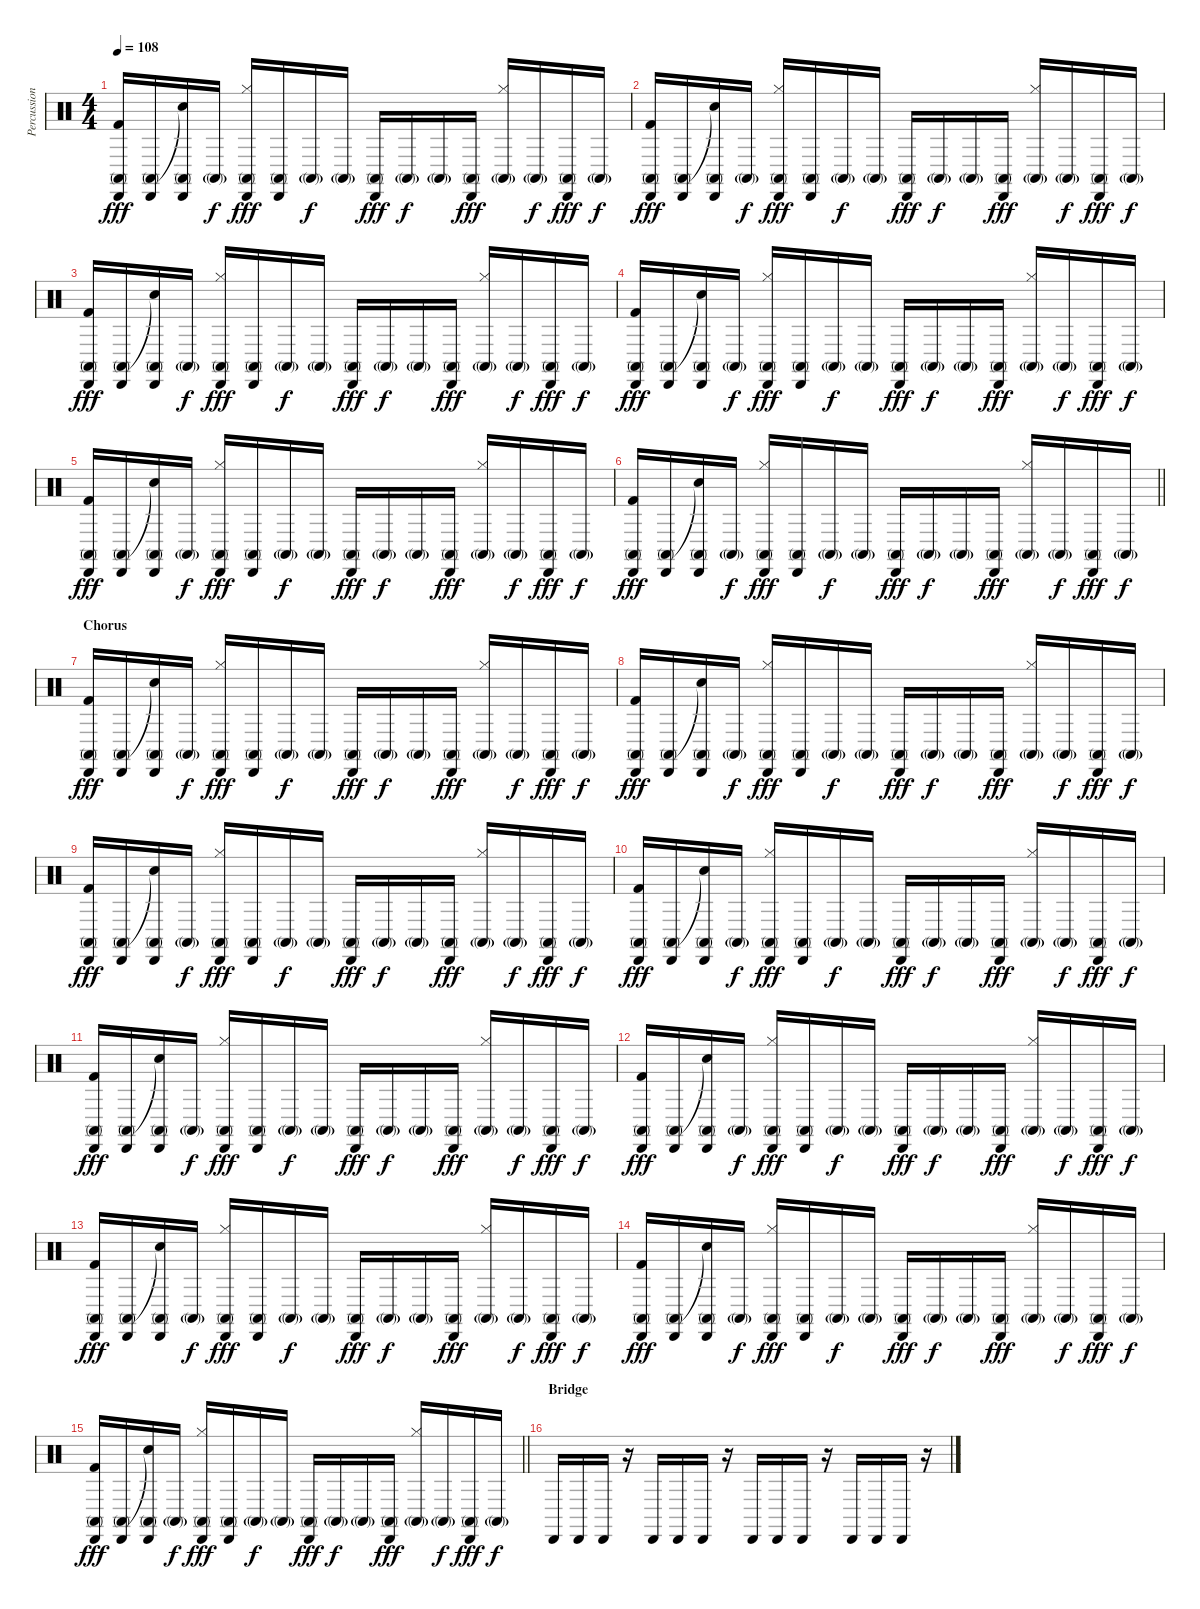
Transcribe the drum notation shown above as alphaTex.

\track ("Percussion" "Percussion") {instrument percussion}
\staff {score}
\articulation defaults
\ts (4 4)
\tempo 108
\clef neutral
\ks c
("Conga high (mute)" "Cabasa (hit)" "Kick (hit) 2").16{dy fff} ("Conga high (mute)" "Cabasa (hit)").16 ("Snare (hit)"{t} "Conga high (mute)" "Cabasa (hit)").16 "Conga high (mute)"{g}.16{dy f} ("Hi-Hat (closed)" "Conga high (mute)" "Cabasa (hit)").16{dy fff} ("Conga high (mute)" "Cabasa (hit)").16 "Conga high (mute)"{g}.16{dy f} "Conga high (mute)"{g}.16 ("Conga high (mute)" "Cabasa (hit)").16{dy fff} "Conga high (mute)"{g}.16{dy f} "Conga high (mute)"{g}.16 ("Conga high (mute)" "Cabasa (hit)").16{dy fff} ("Hi-Hat (closed)" "Conga high (mute)"{g}).16 "Conga high (mute)"{g}.16{dy f} ("Conga high (mute)" "Cabasa (hit)").16{dy fff} "Conga high (mute)"{g}.16{dy f} |
("Conga high (mute)" "Cabasa (hit)" "Kick (hit) 2").16{dy fff} ("Conga high (mute)" "Cabasa (hit)").16 ("Snare (hit)"{t} "Conga high (mute)" "Cabasa (hit)").16 "Conga high (mute)"{g}.16{dy f} ("Hi-Hat (closed)" "Conga high (mute)" "Cabasa (hit)").16{dy fff} ("Conga high (mute)" "Cabasa (hit)").16 "Conga high (mute)"{g}.16{dy f} "Conga high (mute)"{g}.16 ("Conga high (mute)" "Cabasa (hit)").16{dy fff} "Conga high (mute)"{g}.16{dy f} "Conga high (mute)"{g}.16 ("Conga high (mute)" "Cabasa (hit)").16{dy fff} ("Hi-Hat (closed)" "Conga high (mute)"{g}).16 "Conga high (mute)"{g}.16{dy f} ("Conga high (mute)" "Cabasa (hit)").16{dy fff} "Conga high (mute)"{g}.16{dy f} |
("Conga high (mute)" "Cabasa (hit)" "Kick (hit) 2").16{dy fff} ("Conga high (mute)" "Cabasa (hit)").16 ("Snare (hit)"{t} "Conga high (mute)" "Cabasa (hit)").16 "Conga high (mute)"{g}.16{dy f} ("Hi-Hat (closed)" "Conga high (mute)" "Cabasa (hit)").16{dy fff} ("Conga high (mute)" "Cabasa (hit)").16 "Conga high (mute)"{g}.16{dy f} "Conga high (mute)"{g}.16 ("Conga high (mute)" "Cabasa (hit)").16{dy fff} "Conga high (mute)"{g}.16{dy f} "Conga high (mute)"{g}.16 ("Conga high (mute)" "Cabasa (hit)").16{dy fff} ("Hi-Hat (closed)" "Conga high (mute)"{g}).16 "Conga high (mute)"{g}.16{dy f} ("Conga high (mute)" "Cabasa (hit)").16{dy fff} "Conga high (mute)"{g}.16{dy f} |
("Conga high (mute)" "Cabasa (hit)" "Kick (hit) 2").16{dy fff} ("Conga high (mute)" "Cabasa (hit)").16 ("Snare (hit)"{t} "Conga high (mute)" "Cabasa (hit)").16 "Conga high (mute)"{g}.16{dy f} ("Hi-Hat (closed)" "Conga high (mute)" "Cabasa (hit)").16{dy fff} ("Conga high (mute)" "Cabasa (hit)").16 "Conga high (mute)"{g}.16{dy f} "Conga high (mute)"{g}.16 ("Conga high (mute)" "Cabasa (hit)").16{dy fff} "Conga high (mute)"{g}.16{dy f} "Conga high (mute)"{g}.16 ("Conga high (mute)" "Cabasa (hit)").16{dy fff} ("Hi-Hat (closed)" "Conga high (mute)"{g}).16 "Conga high (mute)"{g}.16{dy f} ("Conga high (mute)" "Cabasa (hit)").16{dy fff} "Conga high (mute)"{g}.16{dy f} |
("Conga high (mute)" "Cabasa (hit)" "Kick (hit) 2").16{dy fff} ("Conga high (mute)" "Cabasa (hit)").16 ("Snare (hit)"{t} "Conga high (mute)" "Cabasa (hit)").16 "Conga high (mute)"{g}.16{dy f} ("Hi-Hat (closed)" "Conga high (mute)" "Cabasa (hit)").16{dy fff} ("Conga high (mute)" "Cabasa (hit)").16 "Conga high (mute)"{g}.16{dy f} "Conga high (mute)"{g}.16 ("Conga high (mute)" "Cabasa (hit)").16{dy fff} "Conga high (mute)"{g}.16{dy f} "Conga high (mute)"{g}.16 ("Conga high (mute)" "Cabasa (hit)").16{dy fff} ("Hi-Hat (closed)" "Conga high (mute)"{g}).16 "Conga high (mute)"{g}.16{dy f} ("Conga high (mute)" "Cabasa (hit)").16{dy fff} "Conga high (mute)"{g}.16{dy f} |
\barLineRight lightlight
("Conga high (mute)" "Cabasa (hit)" "Kick (hit) 2").16{dy fff} ("Conga high (mute)" "Cabasa (hit)").16 ("Snare (hit)"{t} "Conga high (mute)" "Cabasa (hit)").16 "Conga high (mute)"{g}.16{dy f} ("Hi-Hat (closed)" "Conga high (mute)" "Cabasa (hit)").16{dy fff} ("Conga high (mute)" "Cabasa (hit)").16 "Conga high (mute)"{g}.16{dy f} "Conga high (mute)"{g}.16 ("Conga high (mute)" "Cabasa (hit)").16{dy fff} "Conga high (mute)"{g}.16{dy f} "Conga high (mute)"{g}.16 ("Conga high (mute)" "Cabasa (hit)").16{dy fff} ("Hi-Hat (closed)" "Conga high (mute)"{g}).16 "Conga high (mute)"{g}.16{dy f} ("Conga high (mute)" "Cabasa (hit)").16{dy fff} "Conga high (mute)"{g}.16{dy f} |
\section ("" "Chorus")
("Conga high (mute)" "Cabasa (hit)" "Kick (hit) 2").16{dy fff} ("Conga high (mute)" "Cabasa (hit)").16 ("Snare (hit)"{t} "Conga high (mute)" "Cabasa (hit)").16 "Conga high (mute)"{g}.16{dy f} ("Hi-Hat (closed)" "Conga high (mute)" "Cabasa (hit)").16{dy fff} ("Conga high (mute)" "Cabasa (hit)").16 "Conga high (mute)"{g}.16{dy f} "Conga high (mute)"{g}.16 ("Conga high (mute)" "Cabasa (hit)").16{dy fff} "Conga high (mute)"{g}.16{dy f} "Conga high (mute)"{g}.16 ("Conga high (mute)" "Cabasa (hit)").16{dy fff} ("Hi-Hat (closed)" "Conga high (mute)"{g}).16 "Conga high (mute)"{g}.16{dy f} ("Conga high (mute)" "Cabasa (hit)").16{dy fff} "Conga high (mute)"{g}.16{dy f} |
("Conga high (mute)" "Cabasa (hit)" "Kick (hit) 2").16{dy fff} ("Conga high (mute)" "Cabasa (hit)").16 ("Snare (hit)"{t} "Conga high (mute)" "Cabasa (hit)").16 "Conga high (mute)"{g}.16{dy f} ("Hi-Hat (closed)" "Conga high (mute)" "Cabasa (hit)").16{dy fff} ("Conga high (mute)" "Cabasa (hit)").16 "Conga high (mute)"{g}.16{dy f} "Conga high (mute)"{g}.16 ("Conga high (mute)" "Cabasa (hit)").16{dy fff} "Conga high (mute)"{g}.16{dy f} "Conga high (mute)"{g}.16 ("Conga high (mute)" "Cabasa (hit)").16{dy fff} ("Hi-Hat (closed)" "Conga high (mute)"{g}).16 "Conga high (mute)"{g}.16{dy f} ("Conga high (mute)" "Cabasa (hit)").16{dy fff} "Conga high (mute)"{g}.16{dy f} |
("Conga high (mute)" "Cabasa (hit)" "Kick (hit) 2").16{dy fff} ("Conga high (mute)" "Cabasa (hit)").16 ("Snare (hit)"{t} "Conga high (mute)" "Cabasa (hit)").16 "Conga high (mute)"{g}.16{dy f} ("Hi-Hat (closed)" "Conga high (mute)" "Cabasa (hit)").16{dy fff} ("Conga high (mute)" "Cabasa (hit)").16 "Conga high (mute)"{g}.16{dy f} "Conga high (mute)"{g}.16 ("Conga high (mute)" "Cabasa (hit)").16{dy fff} "Conga high (mute)"{g}.16{dy f} "Conga high (mute)"{g}.16 ("Conga high (mute)" "Cabasa (hit)").16{dy fff} ("Hi-Hat (closed)" "Conga high (mute)"{g}).16 "Conga high (mute)"{g}.16{dy f} ("Conga high (mute)" "Cabasa (hit)").16{dy fff} "Conga high (mute)"{g}.16{dy f} |
("Conga high (mute)" "Cabasa (hit)" "Kick (hit) 2").16{dy fff} ("Conga high (mute)" "Cabasa (hit)").16 ("Snare (hit)"{t} "Conga high (mute)" "Cabasa (hit)").16 "Conga high (mute)"{g}.16{dy f} ("Hi-Hat (closed)" "Conga high (mute)" "Cabasa (hit)").16{dy fff} ("Conga high (mute)" "Cabasa (hit)").16 "Conga high (mute)"{g}.16{dy f} "Conga high (mute)"{g}.16 ("Conga high (mute)" "Cabasa (hit)").16{dy fff} "Conga high (mute)"{g}.16{dy f} "Conga high (mute)"{g}.16 ("Conga high (mute)" "Cabasa (hit)").16{dy fff} ("Hi-Hat (closed)" "Conga high (mute)"{g}).16 "Conga high (mute)"{g}.16{dy f} ("Conga high (mute)" "Cabasa (hit)").16{dy fff} "Conga high (mute)"{g}.16{dy f} |
("Conga high (mute)" "Cabasa (hit)" "Kick (hit) 2").16{dy fff} ("Conga high (mute)" "Cabasa (hit)").16 ("Snare (hit)"{t} "Conga high (mute)" "Cabasa (hit)").16 "Conga high (mute)"{g}.16{dy f} ("Hi-Hat (closed)" "Conga high (mute)" "Cabasa (hit)").16{dy fff} ("Conga high (mute)" "Cabasa (hit)").16 "Conga high (mute)"{g}.16{dy f} "Conga high (mute)"{g}.16 ("Conga high (mute)" "Cabasa (hit)").16{dy fff} "Conga high (mute)"{g}.16{dy f} "Conga high (mute)"{g}.16 ("Conga high (mute)" "Cabasa (hit)").16{dy fff} ("Hi-Hat (closed)" "Conga high (mute)"{g}).16 "Conga high (mute)"{g}.16{dy f} ("Conga high (mute)" "Cabasa (hit)").16{dy fff} "Conga high (mute)"{g}.16{dy f} |
("Conga high (mute)" "Cabasa (hit)" "Kick (hit) 2").16{dy fff} ("Conga high (mute)" "Cabasa (hit)").16 ("Snare (hit)"{t} "Conga high (mute)" "Cabasa (hit)").16 "Conga high (mute)"{g}.16{dy f} ("Hi-Hat (closed)" "Conga high (mute)" "Cabasa (hit)").16{dy fff} ("Conga high (mute)" "Cabasa (hit)").16 "Conga high (mute)"{g}.16{dy f} "Conga high (mute)"{g}.16 ("Conga high (mute)" "Cabasa (hit)").16{dy fff} "Conga high (mute)"{g}.16{dy f} "Conga high (mute)"{g}.16 ("Conga high (mute)" "Cabasa (hit)").16{dy fff} ("Hi-Hat (closed)" "Conga high (mute)"{g}).16 "Conga high (mute)"{g}.16{dy f} ("Conga high (mute)" "Cabasa (hit)").16{dy fff} "Conga high (mute)"{g}.16{dy f} |
("Conga high (mute)" "Cabasa (hit)" "Kick (hit) 2").16{dy fff} ("Conga high (mute)" "Cabasa (hit)").16 ("Snare (hit)"{t} "Conga high (mute)" "Cabasa (hit)").16 "Conga high (mute)"{g}.16{dy f} ("Hi-Hat (closed)" "Conga high (mute)" "Cabasa (hit)").16{dy fff} ("Conga high (mute)" "Cabasa (hit)").16 "Conga high (mute)"{g}.16{dy f} "Conga high (mute)"{g}.16 ("Conga high (mute)" "Cabasa (hit)").16{dy fff} "Conga high (mute)"{g}.16{dy f} "Conga high (mute)"{g}.16 ("Conga high (mute)" "Cabasa (hit)").16{dy fff} ("Hi-Hat (closed)" "Conga high (mute)"{g}).16 "Conga high (mute)"{g}.16{dy f} ("Conga high (mute)" "Cabasa (hit)").16{dy fff} "Conga high (mute)"{g}.16{dy f} |
("Conga high (mute)" "Cabasa (hit)" "Kick (hit) 2").16{dy fff} ("Conga high (mute)" "Cabasa (hit)").16 ("Snare (hit)"{t} "Conga high (mute)" "Cabasa (hit)").16 "Conga high (mute)"{g}.16{dy f} ("Hi-Hat (closed)" "Conga high (mute)" "Cabasa (hit)").16{dy fff} ("Conga high (mute)" "Cabasa (hit)").16 "Conga high (mute)"{g}.16{dy f} "Conga high (mute)"{g}.16 ("Conga high (mute)" "Cabasa (hit)").16{dy fff} "Conga high (mute)"{g}.16{dy f} "Conga high (mute)"{g}.16 ("Conga high (mute)" "Cabasa (hit)").16{dy fff} ("Hi-Hat (closed)" "Conga high (mute)"{g}).16 "Conga high (mute)"{g}.16{dy f} ("Conga high (mute)" "Cabasa (hit)").16{dy fff} "Conga high (mute)"{g}.16{dy f} |
\barLineRight lightlight
("Conga high (mute)" "Cabasa (hit)" "Kick (hit) 2").16{dy fff} ("Conga high (mute)" "Cabasa (hit)").16 ("Snare (hit)"{t} "Conga high (mute)" "Cabasa (hit)").16 "Conga high (mute)"{g}.16{dy f} ("Hi-Hat (closed)" "Conga high (mute)" "Cabasa (hit)").16{dy fff} ("Conga high (mute)" "Cabasa (hit)").16 "Conga high (mute)"{g}.16{dy f} "Conga high (mute)"{g}.16 ("Conga high (mute)" "Cabasa (hit)").16{dy fff} "Conga high (mute)"{g}.16{dy f} "Conga high (mute)"{g}.16 ("Conga high (mute)" "Cabasa (hit)").16{dy fff} ("Hi-Hat (closed)" "Conga high (mute)"{g}).16 "Conga high (mute)"{g}.16{dy f} ("Conga high (mute)" "Cabasa (hit)").16{dy fff} "Conga high (mute)"{g}.16{dy f} |
\section ("" "Bridge")
"Cabasa (hit)".16 "Cabasa (hit)".16 "Cabasa (hit)".16 r.16 "Cabasa (hit)".16 "Cabasa (hit)".16 "Cabasa (hit)".16 r.16 "Cabasa (hit)".16 "Cabasa (hit)".16 "Cabasa (hit)".16 r.16 "Cabasa (hit)".16 "Cabasa (hit)".16 "Cabasa (hit)".16 r.16
